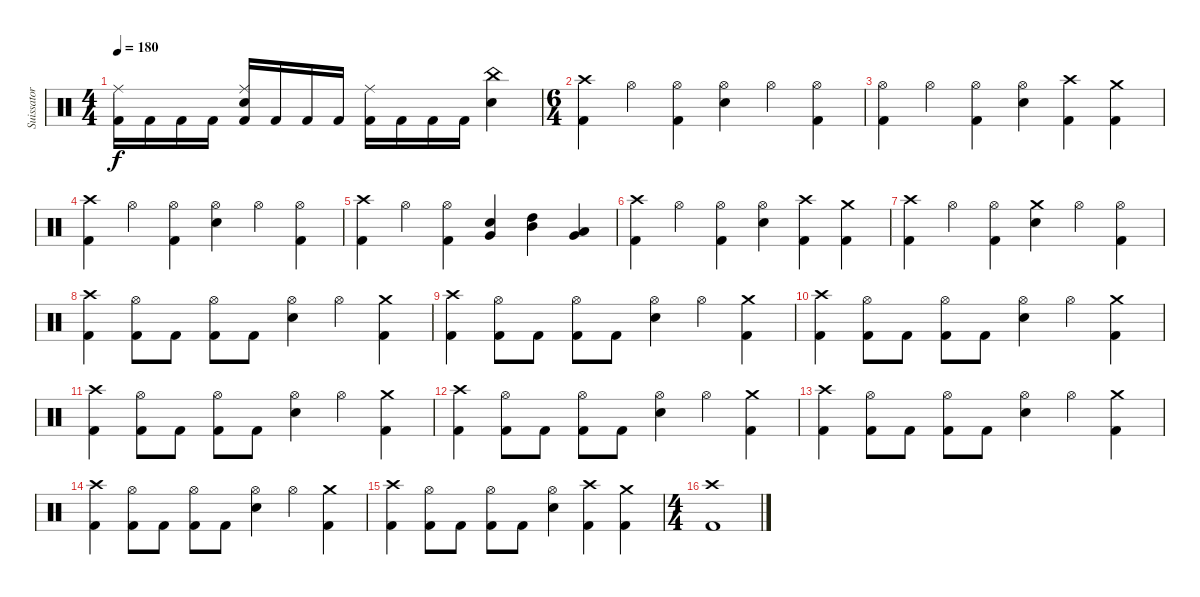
\track ("Suissator" "Suissator") {instrument percussion}
\staff {score}
\articulation defaults
\ts (4 4)
\tempo 180
\clef neutral
\ks c
("Kick (hit) 2" "Ride (middle)").16{dy f} "Kick (hit) 2".16 "Kick (hit) 2".16 "Kick (hit) 2".16 ("Kick (hit) 2" "Electric Snare (hit)" "Ride (middle)").16 "Kick (hit) 2".16 "Kick (hit) 2".16 "Kick (hit) 2".16 ("Kick (hit) 2" "Ride (middle)").16 "Kick (hit) 2".16 "Kick (hit) 2".16 "Kick (hit) 2".16 ("Electric Snare (hit)" "China (hit)").4 |
\ts (6 4)
("Kick (hit) 2" "Crash high (hit)").4 "Hi-Hat (open)".4 ("Kick (hit) 2" "Hi-Hat (open)").4 ("Electric Snare (hit)" "Hi-Hat (open)").4 "Hi-Hat (open)".4 ("Kick (hit) 2" "Hi-Hat (open)").4 |
("Kick (hit) 2" "Hi-Hat (open)").4 "Hi-Hat (open)".4 ("Kick (hit) 2" "Hi-Hat (open)").4 ("Electric Snare (hit)" "Hi-Hat (open)").4 ("Kick (hit) 2" "Crash high (hit)").4 ("Kick (hit) 2" "Crash medium (hit)").4 |
("Kick (hit) 2" "Crash high (hit)").4 "Hi-Hat (open)".4 ("Kick (hit) 2" "Hi-Hat (open)").4 ("Electric Snare (hit)" "Hi-Hat (open)").4 "Hi-Hat (open)".4 ("Kick (hit) 2" "Hi-Hat (open)").4 |
("Kick (hit) 2" "Crash high (hit)").4 "Hi-Hat (open)".4 ("Kick (hit) 2" "Hi-Hat (open)").4 ("Very Low Tom (hit)" "Electric Snare (hit)").4 ("Mid Tom (hit)" "High Tom (hit)").4 ("Very Low Tom (hit)" "Low Tom (hit)").4 |
("Kick (hit) 2" "Crash high (hit)").4 "Hi-Hat (open)".4 ("Kick (hit) 2" "Hi-Hat (open)").4 ("Electric Snare (hit)" "Hi-Hat (open)").4 ("Kick (hit) 2" "Crash high (hit)").4 ("Kick (hit) 2" "Crash medium (hit)").4 |
("Kick (hit) 2" "Crash high (hit)").4 "Hi-Hat (open)".4 ("Kick (hit) 2" "Hi-Hat (open)").4 ("Electric Snare (hit)" "Crash medium (hit)").4 "Hi-Hat (open)".4 ("Kick (hit) 2" "Hi-Hat (open)").4 |
("Kick (hit) 2" "Crash high (hit)").4 ("Kick (hit) 2" "Hi-Hat (open)").8 "Kick (hit) 2".8 ("Kick (hit) 2" "Hi-Hat (open)").8 "Kick (hit) 2".8 ("Electric Snare (hit)" "Hi-Hat (open)").4 "Hi-Hat (open)".4 ("Kick (hit) 2" "Crash medium (hit)").4 |
("Kick (hit) 2" "Crash high (hit)").4 ("Kick (hit) 2" "Hi-Hat (open)").8 "Kick (hit) 2".8 ("Kick (hit) 2" "Hi-Hat (open)").8 "Kick (hit) 2".8 ("Electric Snare (hit)" "Hi-Hat (open)").4 "Hi-Hat (open)".4 ("Kick (hit) 2" "Crash medium (hit)").4 |
("Kick (hit) 2" "Crash high (hit)").4 ("Kick (hit) 2" "Hi-Hat (open)").8 "Kick (hit) 2".8 ("Kick (hit) 2" "Hi-Hat (open)").8 "Kick (hit) 2".8 ("Electric Snare (hit)" "Hi-Hat (open)").4 "Hi-Hat (open)".4 ("Kick (hit) 2" "Crash medium (hit)").4 |
("Kick (hit) 2" "Crash high (hit)").4 ("Kick (hit) 2" "Hi-Hat (open)").8 "Kick (hit) 2".8 ("Kick (hit) 2" "Hi-Hat (open)").8 "Kick (hit) 2".8 ("Electric Snare (hit)" "Hi-Hat (open)").4 "Hi-Hat (open)".4 ("Kick (hit) 2" "Crash medium (hit)").4 |
("Kick (hit) 2" "Crash high (hit)").4 ("Kick (hit) 2" "Hi-Hat (open)").8 "Kick (hit) 2".8 ("Kick (hit) 2" "Hi-Hat (open)").8 "Kick (hit) 2".8 ("Electric Snare (hit)" "Hi-Hat (open)").4 "Hi-Hat (open)".4 ("Kick (hit) 2" "Crash medium (hit)").4 |
("Kick (hit) 2" "Crash high (hit)").4 ("Kick (hit) 2" "Hi-Hat (open)").8 "Kick (hit) 2".8 ("Kick (hit) 2" "Hi-Hat (open)").8 "Kick (hit) 2".8 ("Electric Snare (hit)" "Hi-Hat (open)").4 "Hi-Hat (open)".4 ("Kick (hit) 2" "Crash medium (hit)").4 |
("Kick (hit) 2" "Crash high (hit)").4 ("Kick (hit) 2" "Hi-Hat (open)").8 "Kick (hit) 2".8 ("Kick (hit) 2" "Hi-Hat (open)").8 "Kick (hit) 2".8 ("Electric Snare (hit)" "Hi-Hat (open)").4 "Hi-Hat (open)".4 ("Kick (hit) 2" "Crash medium (hit)").4 |
("Kick (hit) 2" "Crash high (hit)").4 ("Kick (hit) 2" "Hi-Hat (open)").8 "Kick (hit) 2".8 ("Kick (hit) 2" "Hi-Hat (open)").8 "Kick (hit) 2".8 ("Electric Snare (hit)" "Hi-Hat (open)").4 ("Kick (hit) 2" "Crash high (hit)").4 ("Kick (hit) 2" "Crash medium (hit)").4 |
\ts (4 4)
("Kick (hit) 2" "Crash high (hit)").1
